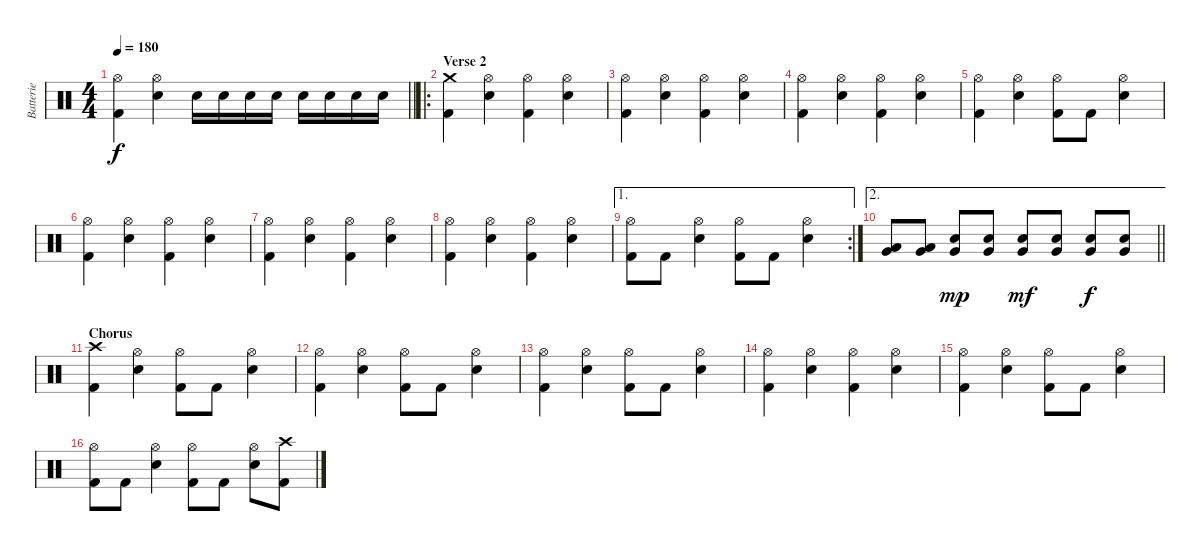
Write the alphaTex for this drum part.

\track ("Batterie" "Batterie") {instrument percussion}
\staff {score}
\articulation defaults
\ts (4 4)
\tempo 180
\clef neutral
\barLineRight lightlight
\ks c
("Hi-Hat (open)" "Kick (hit) 2").4{dy f} ("Hi-Hat (open)" "Electric Snare (hit)").4 "Electric Snare (hit)".16 "Electric Snare (hit)".16 "Electric Snare (hit)".16 "Electric Snare (hit)".16 "Electric Snare (hit)".16 "Electric Snare (hit)".16 "Electric Snare (hit)".16 "Electric Snare (hit)".16 |
\ro
\section ("" "Verse 2")
("Crash medium (hit)" "Kick (hit) 2").4 ("Hi-Hat (open)" "Electric Snare (hit)").4 ("Hi-Hat (open)" "Kick (hit) 2").4 ("Hi-Hat (open)" "Electric Snare (hit)").4 |
("Hi-Hat (open)" "Kick (hit) 2").4 ("Hi-Hat (open)" "Electric Snare (hit)").4 ("Hi-Hat (open)" "Kick (hit) 2").4 ("Hi-Hat (open)" "Electric Snare (hit)").4 |
("Hi-Hat (open)" "Kick (hit) 2").4 ("Hi-Hat (open)" "Electric Snare (hit)").4 ("Hi-Hat (open)" "Kick (hit) 2").4 ("Hi-Hat (open)" "Electric Snare (hit)").4 |
("Hi-Hat (open)" "Kick (hit) 2").4 ("Hi-Hat (open)" "Electric Snare (hit)").4 ("Hi-Hat (open)" "Kick (hit) 2").8 "Kick (hit) 2".8 ("Hi-Hat (open)" "Electric Snare (hit)").4 |
("Hi-Hat (open)" "Kick (hit) 2").4 ("Hi-Hat (open)" "Electric Snare (hit)").4 ("Hi-Hat (open)" "Kick (hit) 2").4 ("Hi-Hat (open)" "Electric Snare (hit)").4 |
("Hi-Hat (open)" "Kick (hit) 2").4 ("Hi-Hat (open)" "Electric Snare (hit)").4 ("Hi-Hat (open)" "Kick (hit) 2").4 ("Hi-Hat (open)" "Electric Snare (hit)").4 |
("Hi-Hat (open)" "Kick (hit) 2").4 ("Hi-Hat (open)" "Electric Snare (hit)").4 ("Hi-Hat (open)" "Kick (hit) 2").4 ("Hi-Hat (open)" "Electric Snare (hit)").4 |
\ae 1
\rc 2
("Hi-Hat (open)" "Kick (hit) 2").8 "Kick (hit) 2".8 ("Hi-Hat (open)" "Electric Snare (hit)").4 ("Hi-Hat (open)" "Kick (hit) 2").8 "Kick (hit) 2".8 ("Hi-Hat (open)" "Electric Snare (hit)").4 |
\ae 2
\barLineRight lightlight
("Low Tom (hit)" "Very Low Tom (hit)").8 ("Low Tom (hit)" "Very Low Tom (hit)").8 ("Electric Snare (hit)" "Very Low Tom (hit)").8{dy mp} ("Electric Snare (hit)" "Very Low Tom (hit)").8 ("Electric Snare (hit)" "Very Low Tom (hit)").8{dy mf} ("Electric Snare (hit)" "Very Low Tom (hit)").8 ("Electric Snare (hit)" "Very Low Tom (hit)").8{dy f} ("Electric Snare (hit)" "Very Low Tom (hit)").8 |
\section ("" "Chorus")
("Crash high (hit)" "Kick (hit) 2").4 ("Hi-Hat (open)" "Electric Snare (hit)").4 ("Hi-Hat (open)" "Kick (hit) 2").8 "Kick (hit) 2".8 ("Hi-Hat (open)" "Electric Snare (hit)").4 |
("Hi-Hat (open)" "Kick (hit) 2").4 ("Hi-Hat (open)" "Electric Snare (hit)").4 ("Hi-Hat (open)" "Kick (hit) 2").8 "Kick (hit) 2".8 ("Hi-Hat (open)" "Electric Snare (hit)").4 |
("Hi-Hat (open)" "Kick (hit) 2").4 ("Hi-Hat (open)" "Electric Snare (hit)").4 ("Hi-Hat (open)" "Kick (hit) 2").8 "Kick (hit) 2".8 ("Hi-Hat (open)" "Electric Snare (hit)").4 |
("Hi-Hat (open)" "Kick (hit) 2").4 ("Hi-Hat (open)" "Electric Snare (hit)").4 ("Hi-Hat (open)" "Kick (hit) 2").4 ("Hi-Hat (open)" "Electric Snare (hit)").4 |
("Hi-Hat (open)" "Kick (hit) 2").4 ("Hi-Hat (open)" "Electric Snare (hit)").4 ("Hi-Hat (open)" "Kick (hit) 2").8 "Kick (hit) 2".8 ("Hi-Hat (open)" "Electric Snare (hit)").4 |
("Hi-Hat (open)" "Kick (hit) 2").8 "Kick (hit) 2".8 ("Hi-Hat (open)" "Electric Snare (hit)").4 ("Hi-Hat (open)" "Kick (hit) 2").8 "Kick (hit) 2".8 ("Hi-Hat (open)" "Electric Snare (hit)").8 ("Crash high (hit)" "Kick (hit) 2").8
